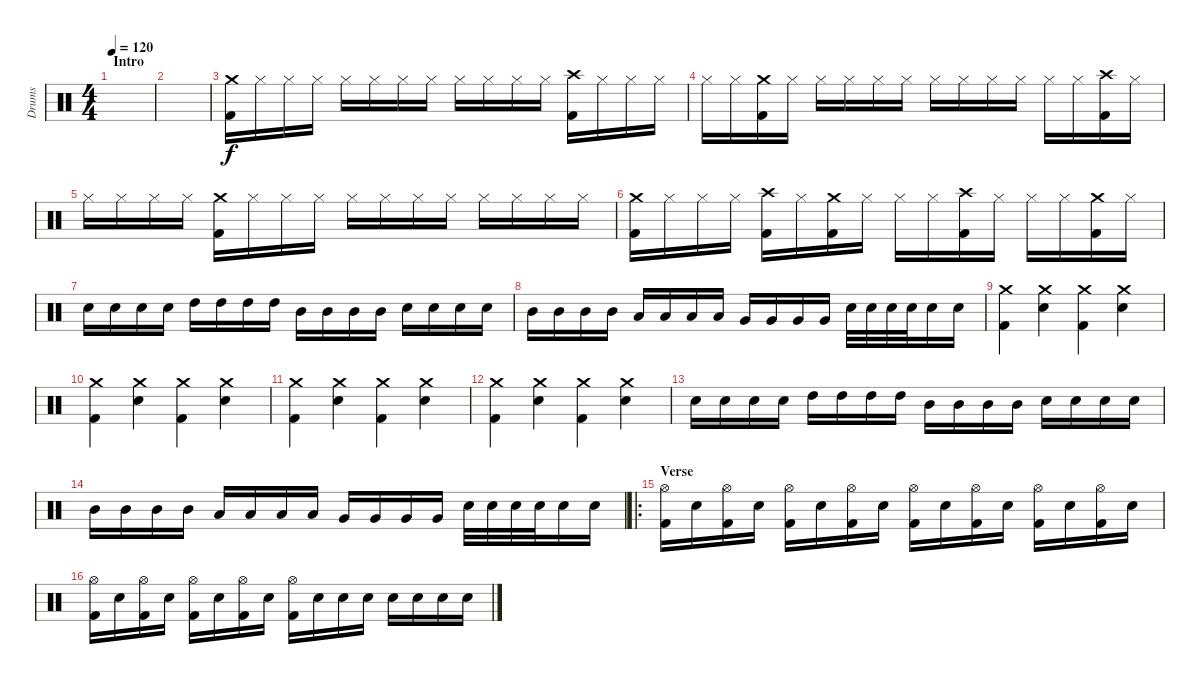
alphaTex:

\track ("Drums" "Drums") {instrument percussion}
\staff {score}
\articulation defaults
\ts (4 4)
\section ("" "Intro")
\tempo 120
\clef neutral
\ks c
|
|
("Crash medium (hit)" "Kick (hit) 2").16 "Hi-Hat (closed)".16 "Hi-Hat (closed)".16 "Hi-Hat (closed)".16 "Hi-Hat (closed)".16 "Hi-Hat (closed)".16 "Hi-Hat (closed)".16 "Hi-Hat (closed)".16 "Hi-Hat (closed)".16 "Hi-Hat (closed)".16 "Hi-Hat (closed)".16 "Hi-Hat (closed)".16 ("Crash high (hit)" "Kick (hit) 2").16 "Hi-Hat (closed)".16 "Hi-Hat (closed)".16 "Hi-Hat (closed)".16 |
"Hi-Hat (closed)".16 "Hi-Hat (closed)".16 ("Crash medium (hit)" "Kick (hit) 2").16 "Hi-Hat (closed)".16 "Hi-Hat (closed)".16 "Hi-Hat (closed)".16 "Hi-Hat (closed)".16 "Hi-Hat (closed)".16 "Hi-Hat (closed)".16 "Hi-Hat (closed)".16 "Hi-Hat (closed)".16 "Hi-Hat (closed)".16 "Hi-Hat (closed)".16 "Hi-Hat (closed)".16 ("Crash high (hit)" "Kick (hit) 2").16 "Hi-Hat (closed)".16 |
"Hi-Hat (closed)".16 "Hi-Hat (closed)".16 "Hi-Hat (closed)".16 "Hi-Hat (closed)".16 ("Crash medium (hit)" "Kick (hit) 2").16 "Hi-Hat (closed)".16 "Hi-Hat (closed)".16 "Hi-Hat (closed)".16 "Hi-Hat (closed)".16 "Hi-Hat (closed)".16 "Hi-Hat (closed)".16 "Hi-Hat (closed)".16 "Hi-Hat (closed)".16 "Hi-Hat (closed)".16 "Hi-Hat (closed)".16 "Hi-Hat (closed)".16 |
("Crash medium (hit)" "Kick (hit) 2").16 "Hi-Hat (closed)".16 "Hi-Hat (closed)".16 "Hi-Hat (closed)".16 ("Crash high (hit)" "Kick (hit) 2").16 "Hi-Hat (closed)".16 ("Crash medium (hit)" "Kick (hit) 2").16 "Hi-Hat (closed)".16 "Hi-Hat (closed)".16 "Hi-Hat (closed)".16 ("Crash high (hit)" "Kick (hit) 2").16 "Hi-Hat (closed)".16 "Hi-Hat (closed)".16 "Hi-Hat (closed)".16 ("Crash medium (hit)" "Kick (hit) 2").16 "Hi-Hat (closed)".16 |
"Electric Snare (hit)".16 "Electric Snare (hit)".16 "Electric Snare (hit)".16 "Electric Snare (hit)".16 "High Tom (hit)".16 "High Tom (hit)".16 "High Tom (hit)".16 "High Tom (hit)".16 "Mid Tom (hit)".16 "Mid Tom (hit)".16 "Mid Tom (hit)".16 "Mid Tom (hit)".16 "Electric Snare (hit)".16 "Electric Snare (hit)".16 "Electric Snare (hit)".16 "Electric Snare (hit)".16 |
"Mid Tom (hit)".16 "Mid Tom (hit)".16 "Mid Tom (hit)".16 "Mid Tom (hit)".16 "Low Tom (hit)".16 "Low Tom (hit)".16 "Low Tom (hit)".16 "Low Tom (hit)".16 "Very Low Tom (hit)".16 "Very Low Tom (hit)".16 "Very Low Tom (hit)".16 "Very Low Tom (hit)".16 "Electric Snare (hit)".32 "Electric Snare (hit)".32 "Electric Snare (hit)".32 "Electric Snare (hit)".32 "Electric Snare (hit)".16 "Electric Snare (hit)".16 |
("Crash medium (hit)" "Kick (hit) 2").4 ("Crash medium (hit)" "Electric Snare (hit)").4 ("Crash medium (hit)" "Kick (hit) 2").4 ("Crash medium (hit)" "Electric Snare (hit)").4 |
("Crash medium (hit)" "Kick (hit) 2").4 ("Crash medium (hit)" "Electric Snare (hit)").4 ("Crash medium (hit)" "Kick (hit) 2").4 ("Crash medium (hit)" "Electric Snare (hit)").4 |
("Crash medium (hit)" "Kick (hit) 2").4 ("Crash medium (hit)" "Electric Snare (hit)").4 ("Crash medium (hit)" "Kick (hit) 2").4 ("Crash medium (hit)" "Electric Snare (hit)").4 |
("Crash medium (hit)" "Kick (hit) 2").4 ("Crash medium (hit)" "Electric Snare (hit)").4 ("Crash medium (hit)" "Kick (hit) 2").4 ("Crash medium (hit)" "Electric Snare (hit)").4 |
"Electric Snare (hit)".16 "Electric Snare (hit)".16 "Electric Snare (hit)".16 "Electric Snare (hit)".16 "High Tom (hit)".16 "High Tom (hit)".16 "High Tom (hit)".16 "High Tom (hit)".16 "Mid Tom (hit)".16 "Mid Tom (hit)".16 "Mid Tom (hit)".16 "Mid Tom (hit)".16 "Electric Snare (hit)".16 "Electric Snare (hit)".16 "Electric Snare (hit)".16 "Electric Snare (hit)".16 |
"Mid Tom (hit)".16 "Mid Tom (hit)".16 "Mid Tom (hit)".16 "Mid Tom (hit)".16 "Low Tom (hit)".16 "Low Tom (hit)".16 "Low Tom (hit)".16 "Low Tom (hit)".16 "Very Low Tom (hit)".16 "Very Low Tom (hit)".16 "Very Low Tom (hit)".16 "Very Low Tom (hit)".16 "Electric Snare (hit)".32 "Electric Snare (hit)".32 "Electric Snare (hit)".32 "Electric Snare (hit)".32 "Electric Snare (hit)".16 "Electric Snare (hit)".16 |
\ro
\section ("" "Verse")
("Hi-Hat (open)" "Kick (hit) 2").16 "Electric Snare (hit)".16 ("Hi-Hat (open)" "Kick (hit) 2").16 "Electric Snare (hit)".16 ("Hi-Hat (open)" "Kick (hit) 2").16 "Electric Snare (hit)".16 ("Hi-Hat (open)" "Kick (hit) 2").16 "Electric Snare (hit)".16 ("Hi-Hat (open)" "Kick (hit) 2").16 "Electric Snare (hit)".16 ("Hi-Hat (open)" "Kick (hit) 2").16 "Electric Snare (hit)".16 ("Hi-Hat (open)" "Kick (hit) 2").16 "Electric Snare (hit)".16 ("Hi-Hat (open)" "Kick (hit) 2").16 "Electric Snare (hit)".16 |
("Hi-Hat (open)" "Kick (hit) 2").16 "Electric Snare (hit)".16 ("Hi-Hat (open)" "Kick (hit) 2").16 "Electric Snare (hit)".16 ("Hi-Hat (open)" "Kick (hit) 2").16 "Electric Snare (hit)".16 ("Hi-Hat (open)" "Kick (hit) 2").16 "Electric Snare (hit)".16 ("Hi-Hat (open)" "Kick (hit) 2").16 "Electric Snare (hit)".16 "Electric Snare (hit)".16 "Electric Snare (hit)".16 "Electric Snare (hit)".16 "Electric Snare (hit)".16 "Electric Snare (hit)".16 "Electric Snare (hit)".16
